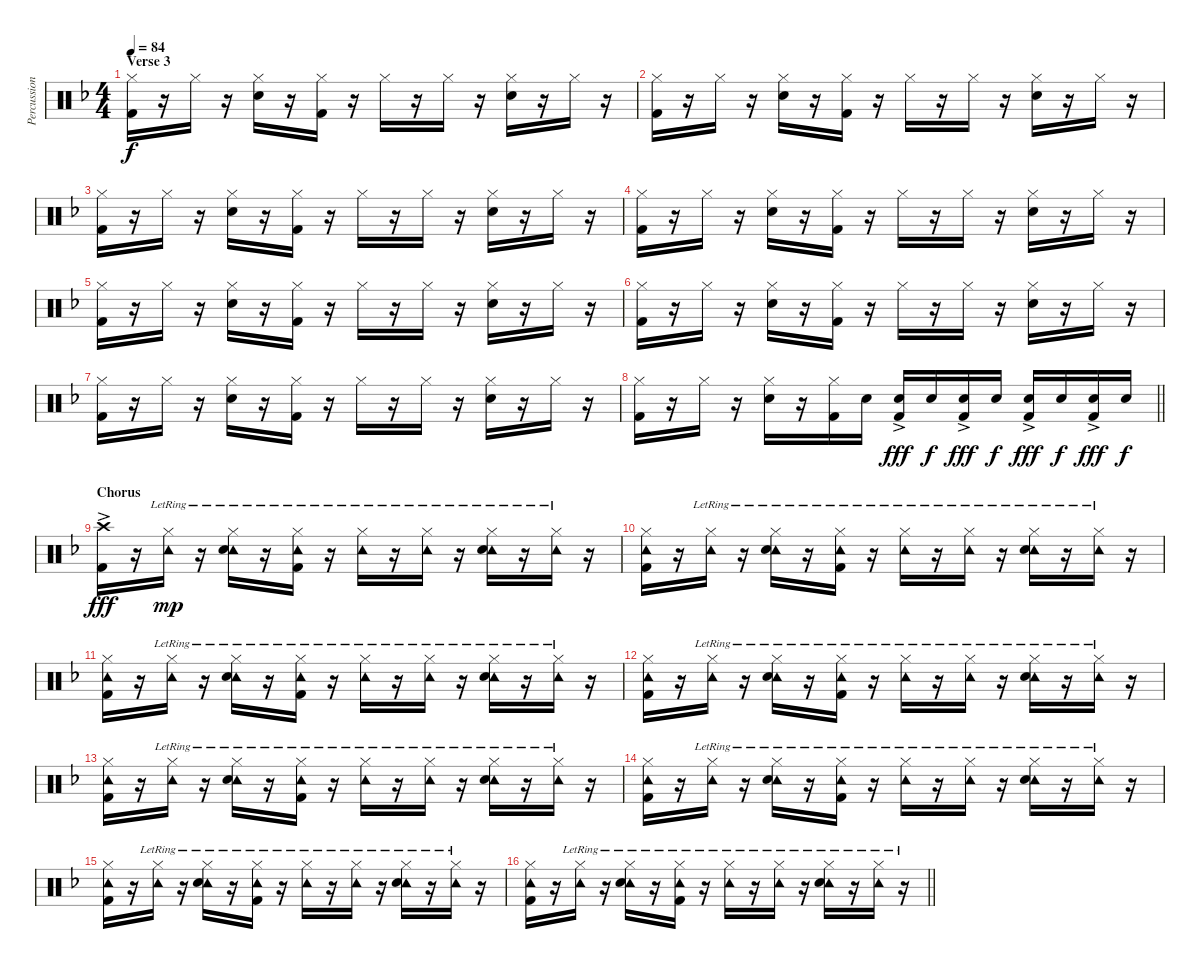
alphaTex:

\track ("Percussion" "Percussion") {instrument percussion}
\staff {score}
\articulation defaults
\ts (4 4)
\section ("" "Verse 3")
\tempo 84
\clef neutral
\ks f
("Hi-Hat (closed)" "Kick (hit) 2").16{dy f} r.16 "Hi-Hat (closed)".16 r.16 ("Hi-Hat (closed)" "Snare (hit) 2").16 r.16 ("Hi-Hat (closed)" "Kick (hit) 2").16 r.16 "Hi-Hat (closed)".16 r.16 "Hi-Hat (closed)".16 r.16 ("Hi-Hat (closed)" "Snare (hit) 2").16 r.16 "Hi-Hat (closed)".16 r.16 |
("Hi-Hat (closed)" "Kick (hit) 2").16 r.16 "Hi-Hat (closed)".16 r.16 ("Hi-Hat (closed)" "Snare (hit) 2").16 r.16 ("Hi-Hat (closed)" "Kick (hit) 2").16 r.16 "Hi-Hat (closed)".16 r.16 "Hi-Hat (closed)".16 r.16 ("Hi-Hat (closed)" "Snare (hit) 2").16 r.16 "Hi-Hat (closed)".16 r.16 |
("Hi-Hat (closed)" "Kick (hit) 2").16 r.16 "Hi-Hat (closed)".16 r.16 ("Hi-Hat (closed)" "Snare (hit) 2").16 r.16 ("Hi-Hat (closed)" "Kick (hit) 2").16 r.16 "Hi-Hat (closed)".16 r.16 "Hi-Hat (closed)".16 r.16 ("Hi-Hat (closed)" "Snare (hit) 2").16 r.16 "Hi-Hat (closed)".16 r.16 |
("Hi-Hat (closed)" "Kick (hit) 2").16 r.16 "Hi-Hat (closed)".16 r.16 ("Hi-Hat (closed)" "Snare (hit) 2").16 r.16 ("Hi-Hat (closed)" "Kick (hit) 2").16 r.16 "Hi-Hat (closed)".16 r.16 "Hi-Hat (closed)".16 r.16 ("Hi-Hat (closed)" "Snare (hit) 2").16 r.16 "Hi-Hat (closed)".16 r.16 |
("Hi-Hat (closed)" "Kick (hit) 2").16 r.16 "Hi-Hat (closed)".16 r.16 ("Hi-Hat (closed)" "Snare (hit) 2").16 r.16 ("Hi-Hat (closed)" "Kick (hit) 2").16 r.16 "Hi-Hat (closed)".16 r.16 "Hi-Hat (closed)".16 r.16 ("Hi-Hat (closed)" "Snare (hit) 2").16 r.16 "Hi-Hat (closed)".16 r.16 |
("Hi-Hat (closed)" "Kick (hit) 2").16 r.16 "Hi-Hat (closed)".16 r.16 ("Hi-Hat (closed)" "Snare (hit) 2").16 r.16 ("Hi-Hat (closed)" "Kick (hit) 2").16 r.16 "Hi-Hat (closed)".16 r.16 "Hi-Hat (closed)".16 r.16 ("Hi-Hat (closed)" "Snare (hit) 2").16 r.16 "Hi-Hat (closed)".16 r.16 |
("Hi-Hat (closed)" "Kick (hit) 2").16 r.16 "Hi-Hat (closed)".16 r.16 ("Hi-Hat (closed)" "Snare (hit) 2").16 r.16 ("Hi-Hat (closed)" "Kick (hit) 2").16 r.16 "Hi-Hat (closed)".16 r.16 "Hi-Hat (closed)".16 r.16 ("Hi-Hat (closed)" "Snare (hit) 2").16 r.16 "Hi-Hat (closed)".16 r.16 |
\barLineRight lightlight
("Hi-Hat (closed)" "Kick (hit) 2").16 r.16 "Hi-Hat (closed)".16 r.16 ("Hi-Hat (closed)" "Snare (hit) 2").16 r.16 ("Hi-Hat (closed)" "Kick (hit) 2").16 "Snare (hit) 2".16 ("Snare (hit) 2"{ac} "Kick (hit) 2").16{dy fff} "Snare (hit) 2".16{dy f} ("Snare (hit) 2"{ac} "Kick (hit) 2").16{dy fff} "Snare (hit) 2".16{dy f} ("Snare (hit) 2"{ac} "Kick (hit) 2").16{dy fff} "Snare (hit) 2".16{dy f} ("Snare (hit) 2"{ac} "Kick (hit) 2").16{dy fff} "Snare (hit) 2".16{dy f} |
\section ("" "Chorus")
("Crash high (hit)"{ac} "Kick (hit) 2").16{dy fff} r.16 ("Hi-Hat (closed)" "Tambourine (hit)"{lr}).16{dy mp} r.16 ("Hi-Hat (closed)" "Tambourine (hit)"{lr} "Snare (hit) 2").16 r.16 ("Hi-Hat (closed)" "Tambourine (hit)"{lr} "Kick (hit) 2").16 r.16 ("Hi-Hat (closed)" "Tambourine (hit)"{lr}).16 r.16 ("Hi-Hat (closed)" "Tambourine (hit)"{lr}).16 r.16 ("Hi-Hat (closed)" "Tambourine (hit)"{lr} "Snare (hit) 2").16 r.16 ("Hi-Hat (closed)" "Tambourine (hit)"{lr}).16 r.16 |
("Hi-Hat (closed)" "Tambourine (hit)" "Kick (hit) 2").16 r.16 ("Hi-Hat (closed)" "Tambourine (hit)"{lr}).16 r.16 ("Hi-Hat (closed)" "Tambourine (hit)"{lr} "Snare (hit) 2").16 r.16 ("Hi-Hat (closed)" "Tambourine (hit)"{lr} "Kick (hit) 2").16 r.16 ("Hi-Hat (closed)" "Tambourine (hit)"{lr}).16 r.16 ("Hi-Hat (closed)" "Tambourine (hit)"{lr}).16 r.16 ("Hi-Hat (closed)" "Tambourine (hit)"{lr} "Snare (hit) 2").16 r.16 ("Hi-Hat (closed)" "Tambourine (hit)"{lr}).16 r.16 |
("Hi-Hat (closed)" "Tambourine (hit)" "Kick (hit) 2").16 r.16 ("Hi-Hat (closed)" "Tambourine (hit)"{lr}).16 r.16 ("Hi-Hat (closed)" "Tambourine (hit)"{lr} "Snare (hit) 2").16 r.16 ("Hi-Hat (closed)" "Tambourine (hit)"{lr} "Kick (hit) 2").16 r.16 ("Hi-Hat (closed)" "Tambourine (hit)"{lr}).16 r.16 ("Hi-Hat (closed)" "Tambourine (hit)"{lr}).16 r.16 ("Hi-Hat (closed)" "Tambourine (hit)"{lr} "Snare (hit) 2").16 r.16 ("Hi-Hat (closed)" "Tambourine (hit)"{lr}).16 r.16 |
("Hi-Hat (closed)" "Tambourine (hit)" "Kick (hit) 2").16 r.16 ("Hi-Hat (closed)" "Tambourine (hit)"{lr}).16 r.16 ("Hi-Hat (closed)" "Tambourine (hit)"{lr} "Snare (hit) 2").16 r.16 ("Hi-Hat (closed)" "Tambourine (hit)"{lr} "Kick (hit) 2").16 r.16 ("Hi-Hat (closed)" "Tambourine (hit)"{lr}).16 r.16 ("Hi-Hat (closed)" "Tambourine (hit)"{lr}).16 r.16 ("Hi-Hat (closed)" "Tambourine (hit)"{lr} "Snare (hit) 2").16 r.16 ("Hi-Hat (closed)" "Tambourine (hit)"{lr}).16 r.16 |
("Hi-Hat (closed)" "Tambourine (hit)" "Kick (hit) 2").16 r.16 ("Hi-Hat (closed)" "Tambourine (hit)"{lr}).16 r.16 ("Hi-Hat (closed)" "Tambourine (hit)"{lr} "Snare (hit) 2").16 r.16 ("Hi-Hat (closed)" "Tambourine (hit)"{lr} "Kick (hit) 2").16 r.16 ("Hi-Hat (closed)" "Tambourine (hit)"{lr}).16 r.16 ("Hi-Hat (closed)" "Tambourine (hit)"{lr}).16 r.16 ("Hi-Hat (closed)" "Tambourine (hit)"{lr} "Snare (hit) 2").16 r.16 ("Hi-Hat (closed)" "Tambourine (hit)"{lr}).16 r.16 |
("Hi-Hat (closed)" "Tambourine (hit)" "Kick (hit) 2").16 r.16 ("Hi-Hat (closed)" "Tambourine (hit)"{lr}).16 r.16 ("Hi-Hat (closed)" "Tambourine (hit)"{lr} "Snare (hit) 2").16 r.16 ("Hi-Hat (closed)" "Tambourine (hit)"{lr} "Kick (hit) 2").16 r.16 ("Hi-Hat (closed)" "Tambourine (hit)"{lr}).16 r.16 ("Hi-Hat (closed)" "Tambourine (hit)"{lr}).16 r.16 ("Hi-Hat (closed)" "Tambourine (hit)"{lr} "Snare (hit) 2").16 r.16 ("Hi-Hat (closed)" "Tambourine (hit)"{lr}).16 r.16 |
("Hi-Hat (closed)" "Tambourine (hit)" "Kick (hit) 2").16 r.16 ("Hi-Hat (closed)" "Tambourine (hit)"{lr}).16 r.16 ("Hi-Hat (closed)" "Tambourine (hit)"{lr} "Snare (hit) 2").16 r.16 ("Hi-Hat (closed)" "Tambourine (hit)"{lr} "Kick (hit) 2").16 r.16 ("Hi-Hat (closed)" "Tambourine (hit)"{lr}).16 r.16 ("Hi-Hat (closed)" "Tambourine (hit)"{lr}).16 r.16 ("Hi-Hat (closed)" "Tambourine (hit)"{lr} "Snare (hit) 2").16 r.16 ("Hi-Hat (closed)" "Tambourine (hit)"{lr}).16 r.16 |
\barLineRight lightlight
("Hi-Hat (closed)" "Tambourine (hit)" "Kick (hit) 2").16 r.16 ("Hi-Hat (closed)" "Tambourine (hit)"{lr}).16 r.16 ("Hi-Hat (closed)" "Tambourine (hit)"{lr} "Snare (hit) 2").16 r.16 ("Hi-Hat (closed)" "Tambourine (hit)"{lr} "Kick (hit) 2").16 r.16 ("Hi-Hat (closed)" "Tambourine (hit)"{lr}).16 r.16 ("Hi-Hat (closed)" "Tambourine (hit)"{lr}).16 r.16 ("Hi-Hat (closed)" "Tambourine (hit)"{lr} "Snare (hit) 2").16 r.16 ("Hi-Hat (closed)" "Tambourine (hit)"{lr}).16 r.16
